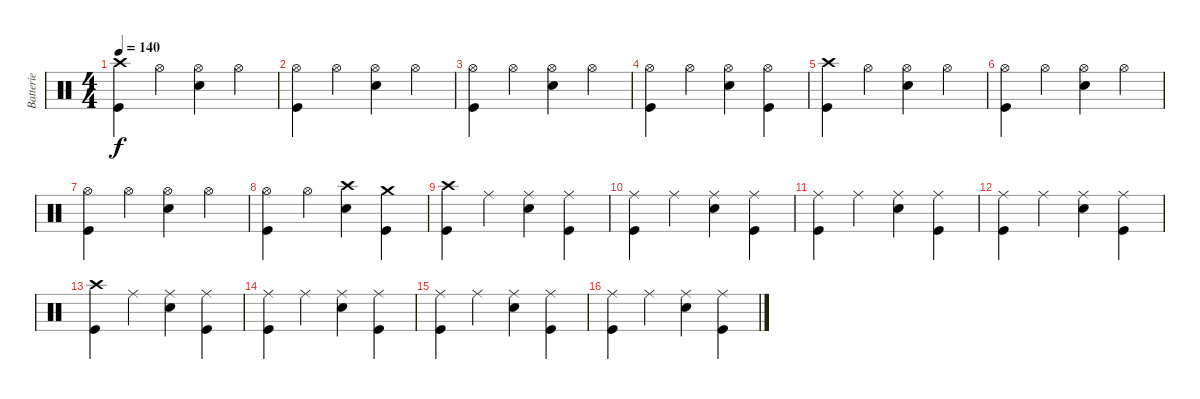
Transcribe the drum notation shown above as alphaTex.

\track ("Batterie" "Batterie") {instrument percussion}
\staff {score}
\articulation defaults
\ts (4 4)
\tempo 140
\clef neutral
\ks c
("Crash high (hit)" "Kick (hit)").4{dy f} "Hi-Hat (open)".4 ("Hi-Hat (open)" "Electric Snare (hit)").4 "Hi-Hat (open)".4 |
("Hi-Hat (open)" "Kick (hit)").4 "Hi-Hat (open)".4 ("Hi-Hat (open)" "Electric Snare (hit)").4 "Hi-Hat (open)".4 |
("Hi-Hat (open)" "Kick (hit)").4 "Hi-Hat (open)".4 ("Hi-Hat (open)" "Electric Snare (hit)").4 "Hi-Hat (open)".4 |
("Hi-Hat (open)" "Kick (hit)").4 "Hi-Hat (open)".4 ("Hi-Hat (open)" "Electric Snare (hit)").4 ("Hi-Hat (open)" "Kick (hit)").4 |
("Crash high (hit)" "Kick (hit)").4 "Hi-Hat (open)".4 ("Hi-Hat (open)" "Electric Snare (hit)").4 "Hi-Hat (open)".4 |
("Hi-Hat (open)" "Kick (hit)").4 "Hi-Hat (open)".4 ("Hi-Hat (open)" "Electric Snare (hit)").4 "Hi-Hat (open)".4 |
("Hi-Hat (open)" "Kick (hit)").4 "Hi-Hat (open)".4 ("Hi-Hat (open)" "Electric Snare (hit)").4 "Hi-Hat (open)".4 |
("Hi-Hat (open)" "Kick (hit)").4 "Hi-Hat (open)".4 ("Crash high (hit)" "Electric Snare (hit)").4 ("Crash medium (hit)" "Kick (hit)").4 |
("Crash high (hit)" "Kick (hit)").4 "Ride (middle)".4 ("Ride (middle)" "Electric Snare (hit)").4 ("Ride (middle)" "Kick (hit)").4 |
("Ride (middle)" "Kick (hit)").4 "Ride (middle)".4 ("Ride (middle)" "Electric Snare (hit)").4 ("Ride (middle)" "Kick (hit)").4 |
("Ride (middle)" "Kick (hit)").4 "Ride (middle)".4 ("Ride (middle)" "Electric Snare (hit)").4 ("Ride (middle)" "Kick (hit)").4 |
("Ride (middle)" "Kick (hit)").4 "Ride (middle)".4 ("Ride (middle)" "Electric Snare (hit)").4 ("Ride (middle)" "Kick (hit)").4 |
("Crash high (hit)" "Kick (hit)").4 "Ride (middle)".4 ("Ride (middle)" "Electric Snare (hit)").4 ("Ride (middle)" "Kick (hit)").4 |
("Ride (middle)" "Kick (hit)").4 "Ride (middle)".4 ("Ride (middle)" "Electric Snare (hit)").4 ("Ride (middle)" "Kick (hit)").4 |
("Ride (middle)" "Kick (hit)").4 "Ride (middle)".4 ("Ride (middle)" "Electric Snare (hit)").4 ("Ride (middle)" "Kick (hit)").4 |
("Ride (middle)" "Kick (hit)").4 "Ride (middle)".4 ("Ride (middle)" "Electric Snare (hit)").4 ("Ride (middle)" "Kick (hit)").4
